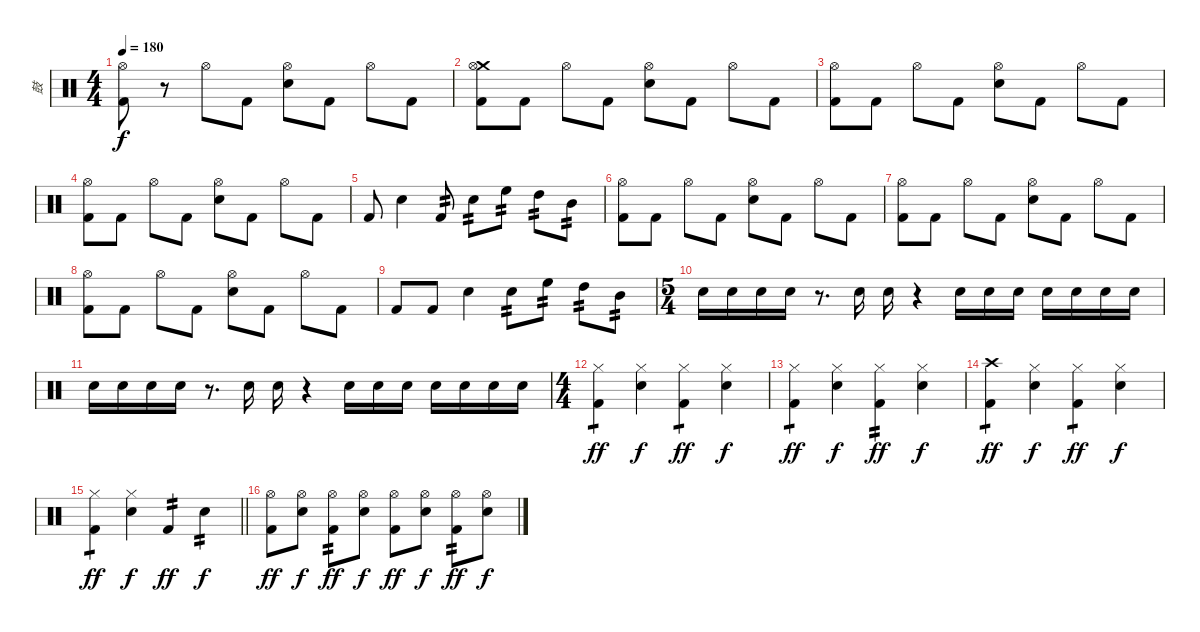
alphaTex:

\track ("鼓" "鼓") {instrument percussion}
\staff {score}
\articulation defaults
\ts (4 4)
\tempo 180
\clef neutral
\ks c
("Hi-Hat (open)" "Kick (hit) 2").8{dy f} r.8 "Hi-Hat (open)".8 "Kick (hit) 2".8 ("Hi-Hat (open)" "Snare (hit) 2").8 "Kick (hit) 2".8 "Hi-Hat (open)".8 "Kick (hit) 2".8 |
("Crash medium (hit)" "Hi-Hat (open)" "Kick (hit) 2").8 "Kick (hit) 2".8 "Hi-Hat (open)".8 "Kick (hit) 2".8 ("Hi-Hat (open)" "Snare (hit) 2").8 "Kick (hit) 2".8 "Hi-Hat (open)".8 "Kick (hit) 2".8 |
("Hi-Hat (open)" "Kick (hit) 2").8 "Kick (hit) 2".8 "Hi-Hat (open)".8 "Kick (hit) 2".8 ("Hi-Hat (open)" "Snare (hit) 2").8 "Kick (hit) 2".8 "Hi-Hat (open)".8 "Kick (hit) 2".8 |
("Hi-Hat (open)" "Kick (hit) 2").8 "Kick (hit) 2".8 "Hi-Hat (open)".8 "Kick (hit) 2".8 ("Hi-Hat (open)" "Snare (hit) 2").8 "Kick (hit) 2".8 "Hi-Hat (open)".8 "Kick (hit) 2".8 |
"Kick (hit) 2".8 "Snare (hit) 2".4 "Kick (hit) 2".8{tp 2} "Snare (hit) 2".8{tp 2} "High Floor Tom (hit)".8{tp 2} "High Tom (hit)".8{tp 2} "Mid Tom (hit)".8{tp 2} |
("Hi-Hat (open)" "Kick (hit) 2").8 "Kick (hit) 2".8 "Hi-Hat (open)".8 "Kick (hit) 2".8 ("Hi-Hat (open)" "Snare (hit) 2").8 "Kick (hit) 2".8 "Hi-Hat (open)".8 "Kick (hit) 2".8 |
("Hi-Hat (open)" "Kick (hit) 2").8 "Kick (hit) 2".8 "Hi-Hat (open)".8 "Kick (hit) 2".8 ("Hi-Hat (open)" "Snare (hit) 2").8 "Kick (hit) 2".8 "Hi-Hat (open)".8 "Kick (hit) 2".8 |
("Hi-Hat (open)" "Kick (hit) 2").8 "Kick (hit) 2".8 "Hi-Hat (open)".8 "Kick (hit) 2".8 ("Hi-Hat (open)" "Snare (hit) 2").8 "Kick (hit) 2".8 "Hi-Hat (open)".8 "Kick (hit) 2".8 |
"Kick (hit) 2".8 "Kick (hit) 2".8 "Snare (hit) 2".4 "Snare (hit) 2".8{tp 2} "High Floor Tom (hit)".8{tp 2} "High Tom (hit)".8{tp 2} "Mid Tom (hit)".8{tp 2} |
\ts (5 4)
"Snare (hit) 2".16 "Snare (hit) 2".16 "Snare (hit) 2".16 "Snare (hit) 2".16 r.8{d} "Snare (hit) 2".16 "Snare (hit) 2".16 r.4 "Snare (hit) 2".16 "Snare (hit) 2".16 "Snare (hit) 2".16 "Snare (hit) 2".16 "Snare (hit) 2".16 "Snare (hit) 2".16 "Snare (hit) 2".16 |
"Snare (hit) 2".16 "Snare (hit) 2".16 "Snare (hit) 2".16 "Snare (hit) 2".16 r.8{d} "Snare (hit) 2".16 "Snare (hit) 2".16 r.4 "Snare (hit) 2".16 "Snare (hit) 2".16 "Snare (hit) 2".16 "Snare (hit) 2".16 "Snare (hit) 2".16 "Snare (hit) 2".16 "Snare (hit) 2".16 |
\ts (4 4)
("Hi-Hat (closed)" "Kick (hit) 2").4{tp 1 dy ff} ("Hi-Hat (closed)" "Snare (hit) 2").4{dy f} ("Hi-Hat (closed)" "Kick (hit) 2").4{tp 1 dy ff} ("Hi-Hat (closed)" "Snare (hit) 2").4{dy f} |
("Hi-Hat (closed)" "Kick (hit) 2").4{tp 1 dy ff} ("Hi-Hat (closed)" "Snare (hit) 2").4{dy f} ("Hi-Hat (closed)" "Kick (hit) 2").4{tp 2 dy ff} ("Hi-Hat (closed)" "Snare (hit) 2").4{dy f} |
("Crash high (hit)" "Kick (hit) 2").4{tp 1 dy ff} ("Hi-Hat (closed)" "Snare (hit) 2").4{dy f} ("Hi-Hat (closed)" "Kick (hit) 2").4{tp 1 dy ff} ("Hi-Hat (closed)" "Snare (hit) 2").4{dy f} |
\barLineRight lightlight
("Hi-Hat (closed)" "Kick (hit) 2").4{tp 1 dy ff} ("Hi-Hat (closed)" "Snare (hit) 2").4{dy f} "Kick (hit) 2".4{tp 2 dy ff} "Snare (hit) 2".4{tp 2 dy f} |
("Hi-Hat (open)" "Kick (hit) 2").8{dy ff} ("Hi-Hat (open)" "Snare (hit) 2").8{dy f} ("Hi-Hat (open)" "Kick (hit) 2").8{tp 2 dy ff} ("Hi-Hat (open)" "Snare (hit) 2").8{dy f} ("Hi-Hat (open)" "Kick (hit) 2").8{dy ff} ("Hi-Hat (open)" "Snare (hit) 2").8{dy f} ("Hi-Hat (open)" "Kick (hit) 2").8{tp 2 dy ff} ("Hi-Hat (open)" "Snare (hit) 2").8{dy f}
